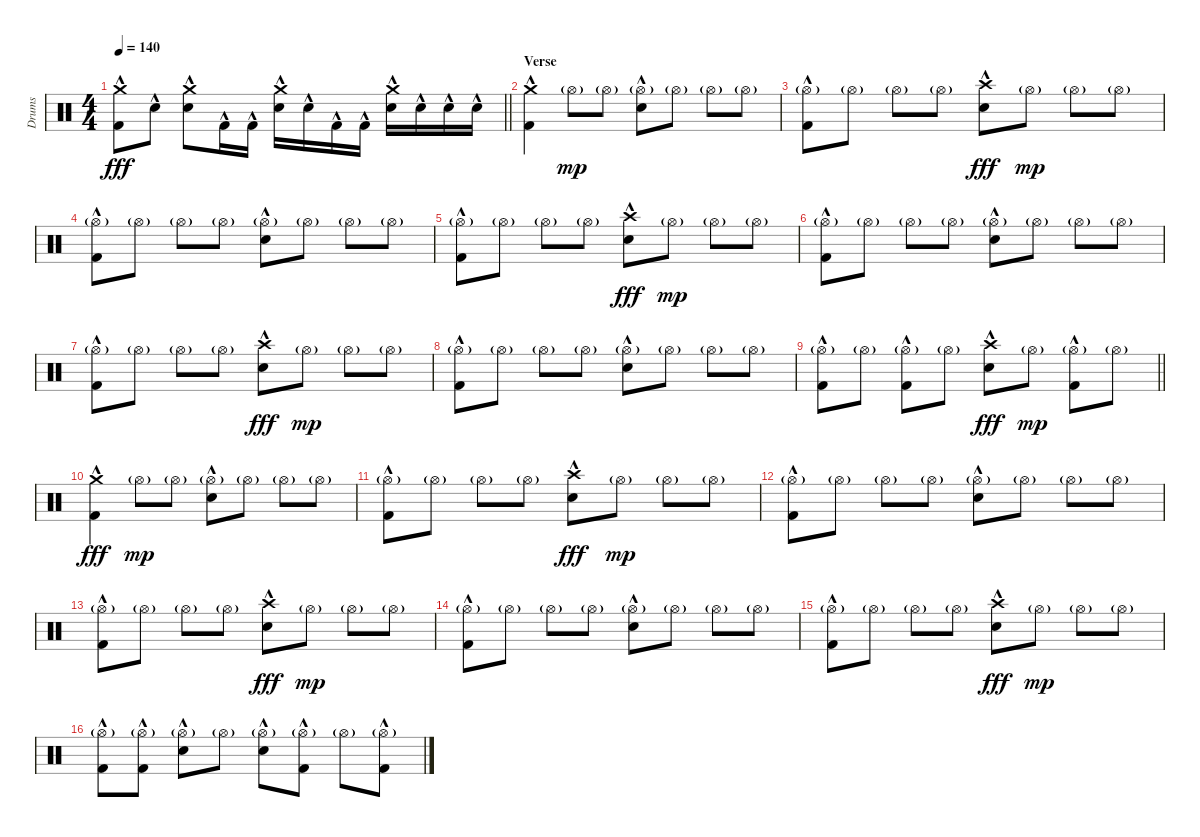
\track ("Drums" "Drums") {instrument percussion}
\staff {score}
\articulation defaults
\ts (4 4)
\tempo 140
\clef neutral
\barLineRight lightlight
\ks c
("Kick (hit) 2"{hac} "Crash medium (hit)").8{dy fff} "Snare (hit) 2"{hac}.8 ("Snare (hit) 2"{hac} "Crash medium (hit)").8 "Kick (hit) 2"{hac}.16 "Kick (hit) 2"{hac}.16 ("Snare (hit) 2"{hac} "Crash medium (hit)").16 "Snare (hit) 2"{hac}.16 "Kick (hit) 2"{hac}.16 "Kick (hit) 2"{hac}.16 ("Snare (hit) 2"{hac} "Crash medium (hit)").16 "Snare (hit) 2"{hac}.16 "Snare (hit) 2"{hac}.16 "Snare (hit) 2"{hac}.16 |
\section ("" "Verse")
("Kick (hit) 2"{hac} "Crash medium (hit)").4 "Hi-Hat (open)"{g}.8{dy mp} "Hi-Hat (open)"{g}.8 ("Snare (hit) 2"{hac} "Hi-Hat (open)"{g}).8 "Hi-Hat (open)"{g}.8 "Hi-Hat (open)"{g}.8 "Hi-Hat (open)"{g}.8 |
("Kick (hit) 2"{hac} "Hi-Hat (open)"{g}).8 "Hi-Hat (open)"{g}.8 "Hi-Hat (open)"{g}.8 "Hi-Hat (open)"{g}.8 ("Snare (hit) 2"{hac} "Crash high (hit)").8{dy fff} "Hi-Hat (open)"{g}.8{dy mp} "Hi-Hat (open)"{g}.8 "Hi-Hat (open)"{g}.8 |
("Kick (hit) 2"{hac} "Hi-Hat (open)"{g}).8 "Hi-Hat (open)"{g}.8 "Hi-Hat (open)"{g}.8 "Hi-Hat (open)"{g}.8 ("Snare (hit) 2"{hac} "Hi-Hat (open)"{g}).8 "Hi-Hat (open)"{g}.8 "Hi-Hat (open)"{g}.8 "Hi-Hat (open)"{g}.8 |
("Kick (hit) 2"{hac} "Hi-Hat (open)"{g}).8 "Hi-Hat (open)"{g}.8 "Hi-Hat (open)"{g}.8 "Hi-Hat (open)"{g}.8 ("Snare (hit) 2"{hac} "Crash high (hit)").8{dy fff} "Hi-Hat (open)"{g}.8{dy mp} "Hi-Hat (open)"{g}.8 "Hi-Hat (open)"{g}.8 |
("Kick (hit) 2"{hac} "Hi-Hat (open)"{g}).8 "Hi-Hat (open)"{g}.8 "Hi-Hat (open)"{g}.8 "Hi-Hat (open)"{g}.8 ("Snare (hit) 2"{hac} "Hi-Hat (open)"{g}).8 "Hi-Hat (open)"{g}.8 "Hi-Hat (open)"{g}.8 "Hi-Hat (open)"{g}.8 |
("Kick (hit) 2"{hac} "Hi-Hat (open)"{g}).8 "Hi-Hat (open)"{g}.8 "Hi-Hat (open)"{g}.8 "Hi-Hat (open)"{g}.8 ("Snare (hit) 2"{hac} "Crash high (hit)").8{dy fff} "Hi-Hat (open)"{g}.8{dy mp} "Hi-Hat (open)"{g}.8 "Hi-Hat (open)"{g}.8 |
("Kick (hit) 2"{hac} "Hi-Hat (open)"{g}).8 "Hi-Hat (open)"{g}.8 "Hi-Hat (open)"{g}.8 "Hi-Hat (open)"{g}.8 ("Snare (hit) 2"{hac} "Hi-Hat (open)"{g}).8 "Hi-Hat (open)"{g}.8 "Hi-Hat (open)"{g}.8 "Hi-Hat (open)"{g}.8 |
\barLineRight lightlight
("Kick (hit) 2"{hac} "Hi-Hat (open)"{g}).8 "Hi-Hat (open)"{g}.8 ("Kick (hit) 2"{hac} "Hi-Hat (open)"{g}).8 "Hi-Hat (open)"{g}.8 ("Snare (hit) 2"{hac} "Crash high (hit)").8{dy fff} "Hi-Hat (open)"{g}.8{dy mp} ("Kick (hit) 2"{hac} "Hi-Hat (open)"{g}).8 "Hi-Hat (open)"{g}.8 |
\section ("" "")
("Kick (hit) 2"{hac} "Crash medium (hit)").4{dy fff} "Hi-Hat (open)"{g}.8{dy mp} "Hi-Hat (open)"{g}.8 ("Snare (hit) 2"{hac} "Hi-Hat (open)"{g}).8 "Hi-Hat (open)"{g}.8 "Hi-Hat (open)"{g}.8 "Hi-Hat (open)"{g}.8 |
("Kick (hit) 2"{hac} "Hi-Hat (open)"{g}).8 "Hi-Hat (open)"{g}.8 "Hi-Hat (open)"{g}.8 "Hi-Hat (open)"{g}.8 ("Snare (hit) 2"{hac} "Crash high (hit)").8{dy fff} "Hi-Hat (open)"{g}.8{dy mp} "Hi-Hat (open)"{g}.8 "Hi-Hat (open)"{g}.8 |
("Kick (hit) 2"{hac} "Hi-Hat (open)"{g}).8 "Hi-Hat (open)"{g}.8 "Hi-Hat (open)"{g}.8 "Hi-Hat (open)"{g}.8 ("Snare (hit) 2"{hac} "Hi-Hat (open)"{g}).8 "Hi-Hat (open)"{g}.8 "Hi-Hat (open)"{g}.8 "Hi-Hat (open)"{g}.8 |
("Kick (hit) 2"{hac} "Hi-Hat (open)"{g}).8 "Hi-Hat (open)"{g}.8 "Hi-Hat (open)"{g}.8 "Hi-Hat (open)"{g}.8 ("Snare (hit) 2"{hac} "Crash high (hit)").8{dy fff} "Hi-Hat (open)"{g}.8{dy mp} "Hi-Hat (open)"{g}.8 "Hi-Hat (open)"{g}.8 |
("Kick (hit) 2"{hac} "Hi-Hat (open)"{g}).8 "Hi-Hat (open)"{g}.8 "Hi-Hat (open)"{g}.8 "Hi-Hat (open)"{g}.8 ("Snare (hit) 2"{hac} "Hi-Hat (open)"{g}).8 "Hi-Hat (open)"{g}.8 "Hi-Hat (open)"{g}.8 "Hi-Hat (open)"{g}.8 |
("Kick (hit) 2"{hac} "Hi-Hat (open)"{g}).8 "Hi-Hat (open)"{g}.8 "Hi-Hat (open)"{g}.8 "Hi-Hat (open)"{g}.8 ("Snare (hit) 2"{hac} "Crash high (hit)").8{dy fff} "Hi-Hat (open)"{g}.8{dy mp} "Hi-Hat (open)"{g}.8 "Hi-Hat (open)"{g}.8 |
("Kick (hit) 2"{hac} "Hi-Hat (open)"{g}).8 ("Kick (hit) 2"{hac} "Hi-Hat (open)"{g}).8 ("Snare (hit) 2"{hac} "Hi-Hat (open)"{g}).8 "Hi-Hat (open)"{g}.8 ("Snare (hit) 2"{hac} "Hi-Hat (open)"{g}).8 ("Kick (hit) 2"{hac} "Hi-Hat (open)"{g}).8 "Hi-Hat (open)"{g}.8 ("Kick (hit) 2"{hac} "Hi-Hat (open)"{g}).8
